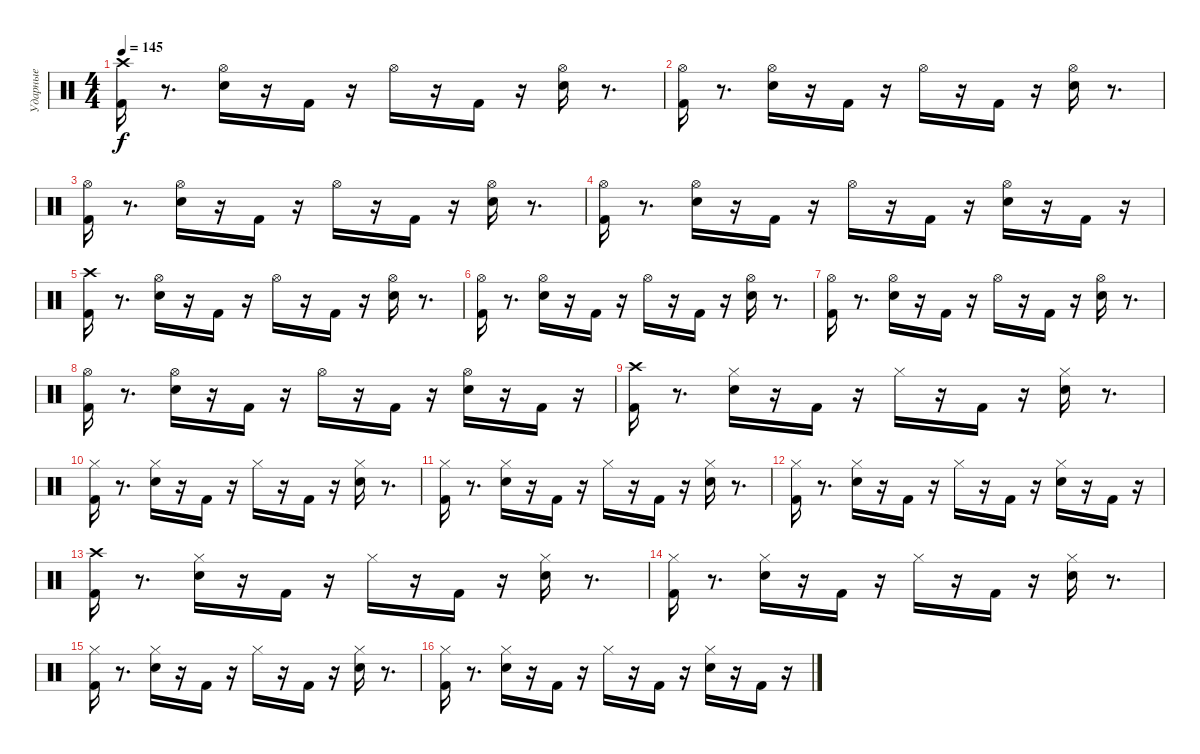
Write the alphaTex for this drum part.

\track ("Ударные" "Ударные") {instrument percussion}
\staff {score}
\articulation defaults
\ts (4 4)
\tempo 145
\clef neutral
\ks c
("Crash high (hit)" "Kick (hit) 2").16{dy f} r.8{d} ("Hi-Hat (open)" "Electric Snare (hit)").16 r.16 "Kick (hit) 2".16 r.16 "Hi-Hat (open)".16 r.16 "Kick (hit) 2".16 r.16 ("Hi-Hat (open)" "Electric Snare (hit)").16 r.8{d} |
("Kick (hit) 2" "Hi-Hat (open)").16 r.8{d} ("Hi-Hat (open)" "Electric Snare (hit)").16 r.16 "Kick (hit) 2".16 r.16 "Hi-Hat (open)".16 r.16 "Kick (hit) 2".16 r.16 ("Electric Snare (hit)" "Hi-Hat (open)").16 r.8{d} |
("Hi-Hat (open)" "Kick (hit) 2").16 r.8{d} ("Hi-Hat (open)" "Electric Snare (hit)").16 r.16 "Kick (hit) 2".16 r.16 "Hi-Hat (open)".16 r.16 "Kick (hit) 2".16 r.16 ("Hi-Hat (open)" "Electric Snare (hit)").16 r.8{d} |
("Hi-Hat (open)" "Kick (hit) 2").16 r.8{d} ("Hi-Hat (open)" "Electric Snare (hit)").16 r.16 "Kick (hit) 2".16 r.16 "Hi-Hat (open)".16 r.16 "Kick (hit) 2".16 r.16 ("Electric Snare (hit)" "Hi-Hat (open)").16 r.16 "Kick (hit) 2".16 r.16 |
("Crash high (hit)" "Kick (hit) 2").16 r.8{d} ("Hi-Hat (open)" "Electric Snare (hit)").16 r.16 "Kick (hit) 2".16 r.16 "Hi-Hat (open)".16 r.16 "Kick (hit) 2".16 r.16 ("Electric Snare (hit)" "Hi-Hat (open)").16 r.8{d} |
("Hi-Hat (open)" "Kick (hit) 2").16 r.8{d} ("Hi-Hat (open)" "Electric Snare (hit)").16 r.16 "Kick (hit) 2".16 r.16 "Hi-Hat (open)".16 r.16 "Kick (hit) 2".16 r.16 ("Electric Snare (hit)" "Hi-Hat (open)").16 r.8{d} |
("Hi-Hat (open)" "Kick (hit) 2").16 r.8{d} ("Hi-Hat (open)" "Electric Snare (hit)").16 r.16 "Kick (hit) 2".16 r.16 "Hi-Hat (open)".16 r.16 "Kick (hit) 2".16 r.16 ("Hi-Hat (open)" "Electric Snare (hit)").16 r.8{d} |
("Kick (hit) 2" "Hi-Hat (open)").16 r.8{d} ("Hi-Hat (open)" "Electric Snare (hit)").16 r.16 "Kick (hit) 2".16 r.16 "Hi-Hat (open)".16 r.16 "Kick (hit) 2".16 r.16 ("Hi-Hat (open)" "Electric Snare (hit)").16 r.16 "Kick (hit) 2".16 r.16 |
("Crash high (hit)" "Kick (hit) 2").16 r.8{d} ("Electric Snare (hit)" "Hi-Hat (closed)").16 r.16 "Kick (hit) 2".16 r.16 "Hi-Hat (closed)".16 r.16 "Kick (hit) 2".16 r.16 ("Hi-Hat (closed)" "Electric Snare (hit)").16 r.8{d} |
("Hi-Hat (closed)" "Kick (hit) 2").16 r.8{d} ("Hi-Hat (closed)" "Electric Snare (hit)").16 r.16 "Kick (hit) 2".16 r.16 "Hi-Hat (closed)".16 r.16 "Kick (hit) 2".16 r.16 ("Electric Snare (hit)" "Hi-Hat (closed)").16 r.8{d} |
("Hi-Hat (closed)" "Kick (hit) 2").16 r.8{d} ("Electric Snare (hit)" "Hi-Hat (closed)").16 r.16 "Kick (hit) 2".16 r.16 "Hi-Hat (closed)".16 r.16 "Kick (hit) 2".16 r.16 ("Hi-Hat (closed)" "Electric Snare (hit)").16 r.8{d} |
("Kick (hit) 2" "Hi-Hat (closed)").16 r.8{d} ("Electric Snare (hit)" "Hi-Hat (closed)").16 r.16 "Kick (hit) 2".16 r.16 "Hi-Hat (closed)".16 r.16 "Kick (hit) 2".16 r.16 ("Hi-Hat (closed)" "Electric Snare (hit)").16 r.16 "Kick (hit) 2".16 r.16 |
("Kick (hit) 2" "Crash high (hit)").16 r.8{d} ("Hi-Hat (closed)" "Electric Snare (hit)").16 r.16 "Kick (hit) 2".16 r.16 "Hi-Hat (closed)".16 r.16 "Kick (hit) 2".16 r.16 ("Hi-Hat (closed)" "Electric Snare (hit)").16 r.8{d} |
("Hi-Hat (closed)" "Kick (hit) 2").16 r.8{d} ("Hi-Hat (closed)" "Electric Snare (hit)").16 r.16 "Kick (hit) 2".16 r.16 "Hi-Hat (closed)".16 r.16 "Kick (hit) 2".16 r.16 ("Hi-Hat (closed)" "Electric Snare (hit)").16 r.8{d} |
("Hi-Hat (closed)" "Kick (hit) 2").16 r.8{d} ("Electric Snare (hit)" "Hi-Hat (closed)").16 r.16 "Kick (hit) 2".16 r.16 "Hi-Hat (closed)".16 r.16 "Kick (hit) 2".16 r.16 ("Electric Snare (hit)" "Hi-Hat (closed)").16 r.8{d} |
("Kick (hit) 2" "Hi-Hat (closed)").16 r.8{d} ("Electric Snare (hit)" "Hi-Hat (closed)").16 r.16 "Kick (hit) 2".16 r.16 "Hi-Hat (closed)".16 r.16 "Kick (hit) 2".16 r.16 ("Electric Snare (hit)" "Hi-Hat (closed)").16 r.16 "Kick (hit) 2".16 r.16
